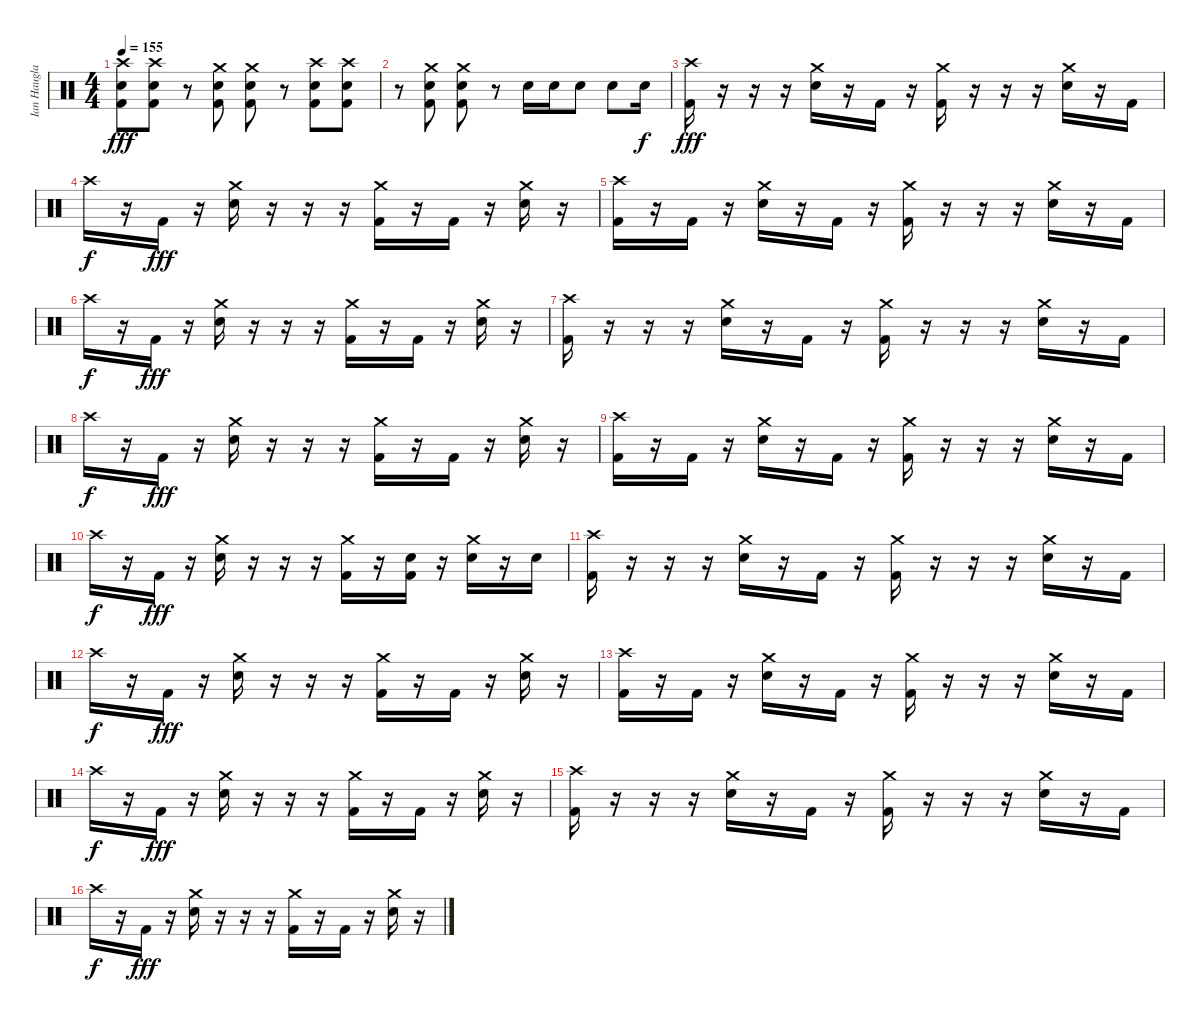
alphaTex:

\track ("Ian Haugland" "Ian Haugla") {instrument percussion}
\staff {score}
\articulation defaults
\ts (4 4)
\tempo 155
\clef neutral
\ks c
("Crash high (hit)" "Electric Snare (hit)" "Kick (hit) 2").8{dy fff} ("Crash high (hit)" "Electric Snare (hit)" "Kick (hit) 2").8 r.8 ("Crash medium (hit)" "Electric Snare (hit)" "Kick (hit) 2").8 ("Crash medium (hit)" "Electric Snare (hit)" "Kick (hit) 2").8 r.8 ("Crash high (hit)" "Electric Snare (hit)" "Kick (hit) 2").8 ("Crash high (hit)" "Electric Snare (hit)" "Kick (hit) 2").8 |
r.8 ("Crash medium (hit)" "Electric Snare (hit)" "Kick (hit) 2").8 ("Crash medium (hit)" "Electric Snare (hit)" "Kick (hit) 2").8 r.8 "Electric Snare (hit)".16 "Electric Snare (hit)".16 "Electric Snare (hit)".8 "Electric Snare (hit)".8 "Electric Snare (hit)".16{dy f} |
("Crash high (hit)" "Kick (hit) 2").16{dy fff} r.16 r.16 r.16 ("Crash medium (hit)" "Electric Snare (hit)").16 r.16 "Kick (hit) 2".16 r.16 ("Crash medium (hit)" "Kick (hit) 2").16 r.16 r.16 r.16 ("Crash medium (hit)" "Electric Snare (hit)").16 r.16 "Kick (hit) 2".16 |
"Crash high (hit)".16{dy f} r.16 "Kick (hit) 2".16{dy fff} r.16 ("Crash medium (hit)" "Electric Snare (hit)").16 r.16 r.16 r.16 ("Crash medium (hit)" "Kick (hit) 2").16 r.16 "Kick (hit) 2".16 r.16 ("Crash medium (hit)" "Electric Snare (hit)").16 r.16 |
("Crash high (hit)" "Kick (hit) 2").16 r.16 "Kick (hit) 2".16 r.16 ("Crash medium (hit)" "Electric Snare (hit)").16 r.16 "Kick (hit) 2".16 r.16 ("Crash medium (hit)" "Kick (hit) 2").16 r.16 r.16 r.16 ("Crash medium (hit)" "Electric Snare (hit)").16 r.16 "Kick (hit) 2".16 |
"Crash high (hit)".16{dy f} r.16 "Kick (hit) 2".16{dy fff} r.16 ("Crash medium (hit)" "Electric Snare (hit)").16 r.16 r.16 r.16 ("Crash medium (hit)" "Kick (hit) 2").16 r.16 "Kick (hit) 2".16 r.16 ("Crash medium (hit)" "Electric Snare (hit)").16 r.16 |
("Crash high (hit)" "Kick (hit) 2").16 r.16 r.16 r.16 ("Crash medium (hit)" "Electric Snare (hit)").16 r.16 "Kick (hit) 2".16 r.16 ("Crash medium (hit)" "Kick (hit) 2").16 r.16 r.16 r.16 ("Crash medium (hit)" "Electric Snare (hit)").16 r.16 "Kick (hit) 2".16 |
"Crash high (hit)".16{dy f} r.16 "Kick (hit) 2".16{dy fff} r.16 ("Crash medium (hit)" "Electric Snare (hit)").16 r.16 r.16 r.16 ("Crash medium (hit)" "Kick (hit) 2").16 r.16 "Kick (hit) 2".16 r.16 ("Crash medium (hit)" "Electric Snare (hit)").16 r.16 |
("Crash high (hit)" "Kick (hit) 2").16 r.16 "Kick (hit) 2".16 r.16 ("Crash medium (hit)" "Electric Snare (hit)").16 r.16 "Kick (hit) 2".16 r.16 ("Crash medium (hit)" "Kick (hit) 2").16 r.16 r.16 r.16 ("Crash medium (hit)" "Electric Snare (hit)").16 r.16 "Kick (hit) 2".16 |
"Crash high (hit)".16{dy f} r.16 "Kick (hit) 2".16{dy fff} r.16 ("Crash medium (hit)" "Electric Snare (hit)").16 r.16 r.16 r.16 ("Crash medium (hit)" "Kick (hit) 2").16 r.16 ("Electric Snare (hit)" "Kick (hit) 2").16 r.16 ("Crash medium (hit)" "Electric Snare (hit)").16 r.16 "Electric Snare (hit)".16 |
("Crash high (hit)" "Kick (hit) 2").16 r.16 r.16 r.16 ("Crash medium (hit)" "Electric Snare (hit)").16 r.16 "Kick (hit) 2".16 r.16 ("Crash medium (hit)" "Kick (hit) 2").16 r.16 r.16 r.16 ("Crash medium (hit)" "Electric Snare (hit)").16 r.16 "Kick (hit) 2".16 |
"Crash high (hit)".16{dy f} r.16 "Kick (hit) 2".16{dy fff} r.16 ("Crash medium (hit)" "Electric Snare (hit)").16 r.16 r.16 r.16 ("Crash medium (hit)" "Kick (hit) 2").16 r.16 "Kick (hit) 2".16 r.16 ("Crash medium (hit)" "Electric Snare (hit)").16 r.16 |
("Crash high (hit)" "Kick (hit) 2").16 r.16 "Kick (hit) 2".16 r.16 ("Crash medium (hit)" "Electric Snare (hit)").16 r.16 "Kick (hit) 2".16 r.16 ("Crash medium (hit)" "Kick (hit) 2").16 r.16 r.16 r.16 ("Crash medium (hit)" "Electric Snare (hit)").16 r.16 "Kick (hit) 2".16 |
"Crash high (hit)".16{dy f} r.16 "Kick (hit) 2".16{dy fff} r.16 ("Crash medium (hit)" "Electric Snare (hit)").16 r.16 r.16 r.16 ("Crash medium (hit)" "Kick (hit) 2").16 r.16 "Kick (hit) 2".16 r.16 ("Crash medium (hit)" "Electric Snare (hit)").16 r.16 |
("Crash high (hit)" "Kick (hit) 2").16 r.16 r.16 r.16 ("Crash medium (hit)" "Electric Snare (hit)").16 r.16 "Kick (hit) 2".16 r.16 ("Crash medium (hit)" "Kick (hit) 2").16 r.16 r.16 r.16 ("Crash medium (hit)" "Electric Snare (hit)").16 r.16 "Kick (hit) 2".16 |
"Crash high (hit)".16{dy f} r.16 "Kick (hit) 2".16{dy fff} r.16 ("Crash medium (hit)" "Electric Snare (hit)").16 r.16 r.16 r.16 ("Crash medium (hit)" "Kick (hit) 2").16 r.16 "Kick (hit) 2".16 r.16 ("Crash medium (hit)" "Electric Snare (hit)").16 r.16
